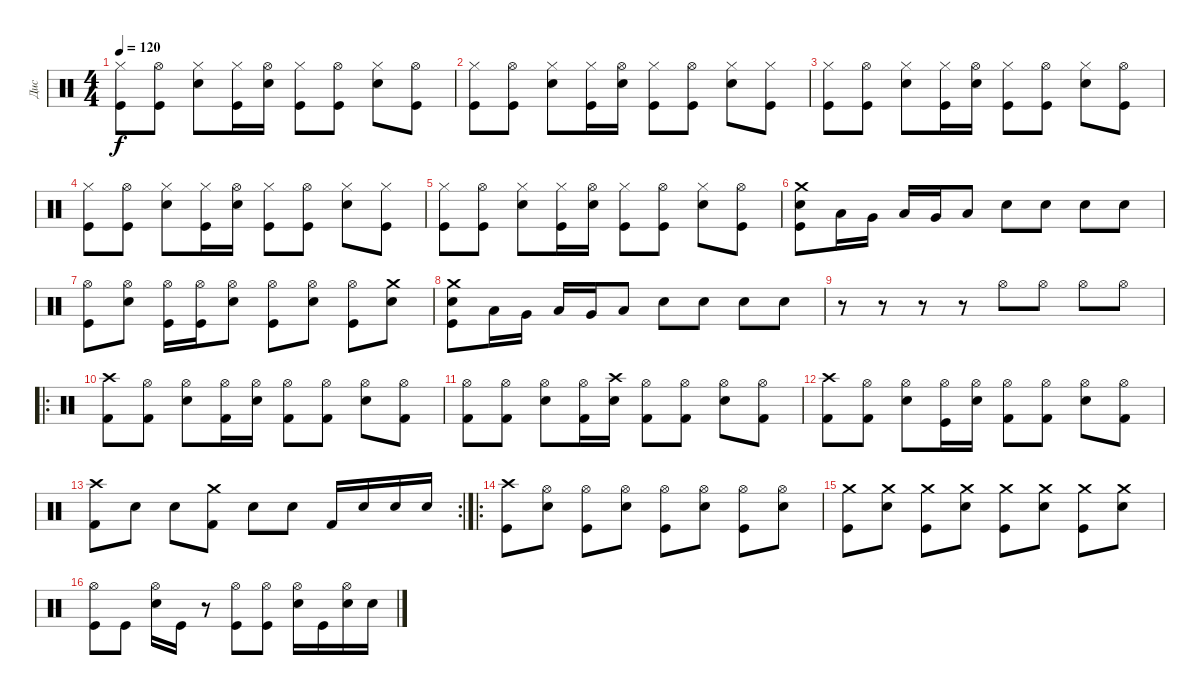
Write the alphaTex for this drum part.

\track ("Дис  " "Дис  ") {instrument percussion}
\staff {score}
\articulation defaults
\ts (4 4)
\tempo 120
\clef neutral
\ks c
("Hi-Hat (closed)" "Kick (hit)").8{dy f} ("Hi-Hat (open)" "Kick (hit)").8 ("Hi-Hat (closed)" "Electric Snare (hit)").8 ("Hi-Hat (closed)" "Kick (hit)").16 ("Hi-Hat (open)" "Electric Snare (hit)").16 ("Hi-Hat (closed)" "Kick (hit)").8 ("Hi-Hat (open)" "Kick (hit)").8 ("Hi-Hat (closed)" "Electric Snare (hit)").8 ("Hi-Hat (open)" "Kick (hit)").8 |
("Hi-Hat (closed)" "Kick (hit)").8 ("Hi-Hat (open)" "Kick (hit)").8 ("Hi-Hat (closed)" "Electric Snare (hit)").8 ("Hi-Hat (closed)" "Kick (hit)").16 ("Hi-Hat (open)" "Electric Snare (hit)").16 ("Hi-Hat (closed)" "Kick (hit)").8 ("Hi-Hat (open)" "Kick (hit)").8 ("Hi-Hat (closed)" "Electric Snare (hit)").8 ("Hi-Hat (closed)" "Kick (hit)").8 |
("Hi-Hat (closed)" "Kick (hit)").8 ("Hi-Hat (open)" "Kick (hit)").8 ("Hi-Hat (closed)" "Electric Snare (hit)").8 ("Hi-Hat (closed)" "Kick (hit)").16 ("Hi-Hat (open)" "Electric Snare (hit)").16 ("Hi-Hat (closed)" "Kick (hit)").8 ("Hi-Hat (open)" "Kick (hit)").8 ("Hi-Hat (closed)" "Electric Snare (hit)").8 ("Hi-Hat (open)" "Kick (hit)").8 |
("Hi-Hat (closed)" "Kick (hit)").8 ("Hi-Hat (open)" "Kick (hit)").8 ("Hi-Hat (closed)" "Electric Snare (hit)").8 ("Hi-Hat (closed)" "Kick (hit)").16 ("Hi-Hat (open)" "Electric Snare (hit)").16 ("Hi-Hat (closed)" "Kick (hit)").8 ("Hi-Hat (open)" "Kick (hit)").8 ("Hi-Hat (closed)" "Electric Snare (hit)").8 ("Hi-Hat (closed)" "Kick (hit)").8 |
("Hi-Hat (closed)" "Kick (hit)").8 ("Hi-Hat (open)" "Kick (hit)").8 ("Hi-Hat (closed)" "Electric Snare (hit)").8 ("Hi-Hat (closed)" "Kick (hit)").16 ("Hi-Hat (open)" "Electric Snare (hit)").16 ("Hi-Hat (closed)" "Kick (hit)").8 ("Hi-Hat (open)" "Kick (hit)").8 ("Hi-Hat (closed)" "Electric Snare (hit)").8 ("Hi-Hat (open)" "Kick (hit)").8 |
("Crash medium (hit)" "Electric Snare (hit)" "Kick (hit)").8 "Low Tom (hit)".16 "Very Low Tom (hit)".16 "Low Floor Tom (hit)".16 "Very Low Tom (hit)".16 "Low Tom (hit)".8 "Electric Snare (hit)".8 "Electric Snare (hit)".8 "Electric Snare (hit)".8 "Electric Snare (hit)".8 |
("Hi-Hat (open)" "Kick (hit)").8 ("Hi-Hat (open)" "Electric Snare (hit)").8 ("Hi-Hat (open)" "Kick (hit)").16 ("Hi-Hat (open)" "Kick (hit)").16 ("Hi-Hat (open)" "Electric Snare (hit)").8 ("Hi-Hat (open)" "Kick (hit)").8 ("Hi-Hat (open)" "Electric Snare (hit)").8 ("Hi-Hat (open)" "Kick (hit)").8 ("Crash medium (hit)" "Electric Snare (hit)").8 |
("Crash medium (hit)" "Electric Snare (hit)" "Kick (hit)").8 "Low Tom (hit)".16 "Very Low Tom (hit)".16 "Low Floor Tom (hit)".16 "Very Low Tom (hit)".16 "Low Tom (hit)".8 "Electric Snare (hit)".8 "Electric Snare (hit)".8 "Electric Snare (hit)".8 "Electric Snare (hit)".8 |
r.8 r.8 r.8 r.8 "Hi-Hat (open)".8 "Hi-Hat (open)".8 "Hi-Hat (open)".8 "Hi-Hat (open)".8 |
\ro
("Crash high (hit)" "Kick (hit) 2").8 ("Hi-Hat (open)" "Kick (hit) 2").8 ("Hi-Hat (open)" "Electric Snare (hit)").8 ("Hi-Hat (open)" "Kick (hit) 2").16 ("Hi-Hat (open)" "Electric Snare (hit)").16 ("Hi-Hat (open)" "Kick (hit) 2").8 ("Hi-Hat (open)" "Kick (hit) 2").8 ("Hi-Hat (open)" "Electric Snare (hit)").8 ("Hi-Hat (open)" "Kick (hit) 2").8 |
("Hi-Hat (open)" "Kick (hit) 2").8 ("Hi-Hat (open)" "Kick (hit) 2").8 ("Hi-Hat (open)" "Electric Snare (hit)").8 ("Hi-Hat (open)" "Kick (hit) 2").16 ("Crash high (hit)" "Electric Snare (hit)").16 ("Hi-Hat (open)" "Kick (hit) 2").8 ("Hi-Hat (open)" "Kick (hit) 2").8 ("Hi-Hat (open)" "Electric Snare (hit)").8 ("Hi-Hat (open)" "Kick (hit) 2").8 |
("Crash high (hit)" "Kick (hit) 2").8 ("Hi-Hat (open)" "Kick (hit) 2").8 ("Hi-Hat (open)" "Electric Snare (hit)").8 ("Hi-Hat (open)" "Kick (hit)").16 ("Hi-Hat (open)" "Electric Snare (hit)").16 ("Hi-Hat (open)" "Kick (hit) 2").8 ("Hi-Hat (open)" "Kick (hit) 2").8 ("Hi-Hat (open)" "Electric Snare (hit)").8 ("Hi-Hat (open)" "Kick (hit) 2").8 |
\rc 2
("Crash high (hit)" "Kick (hit) 2").8 "Electric Snare (hit)".8 "Electric Snare (hit)".8 ("Crash medium (hit)" "Kick (hit) 2").8 "Electric Snare (hit)".8 "Electric Snare (hit)".8 "Kick (hit) 2".16 "Electric Snare (hit)".16 "Electric Snare (hit)".16 "Electric Snare (hit)".16 |
\ro
("Crash high (hit)" "Kick (hit)").8 ("Hi-Hat (open)" "Electric Snare (hit)").8 ("Hi-Hat (open)" "Kick (hit)").8 ("Hi-Hat (open)" "Electric Snare (hit)").8 ("Hi-Hat (open)" "Kick (hit)").8 ("Hi-Hat (open)" "Electric Snare (hit)").8 ("Hi-Hat (open)" "Kick (hit)").8 ("Hi-Hat (open)" "Electric Snare (hit)").8 |
("Crash medium (hit)" "Kick (hit)").8 ("Crash medium (hit)" "Electric Snare (hit)").8 ("Crash medium (hit)" "Kick (hit)").8 ("Crash medium (hit)" "Electric Snare (hit)").8 ("Crash medium (hit)" "Kick (hit)").8 ("Crash medium (hit)" "Electric Snare (hit)").8 ("Crash medium (hit)" "Kick (hit)").8 ("Crash medium (hit)" "Electric Snare (hit)").8 |
("Hi-Hat (open)" "Kick (hit)").8 "Kick (hit)".8 ("Hi-Hat (open)" "Electric Snare (hit)").16 "Kick (hit)".16 r.8 ("Hi-Hat (open)" "Kick (hit)").8 ("Hi-Hat (open)" "Kick (hit)").8 ("Hi-Hat (open)" "Electric Snare (hit)").16 "Kick (hit)".16 ("Hi-Hat (open)" "Electric Snare (hit)").16 "Electric Snare (hit)".16
